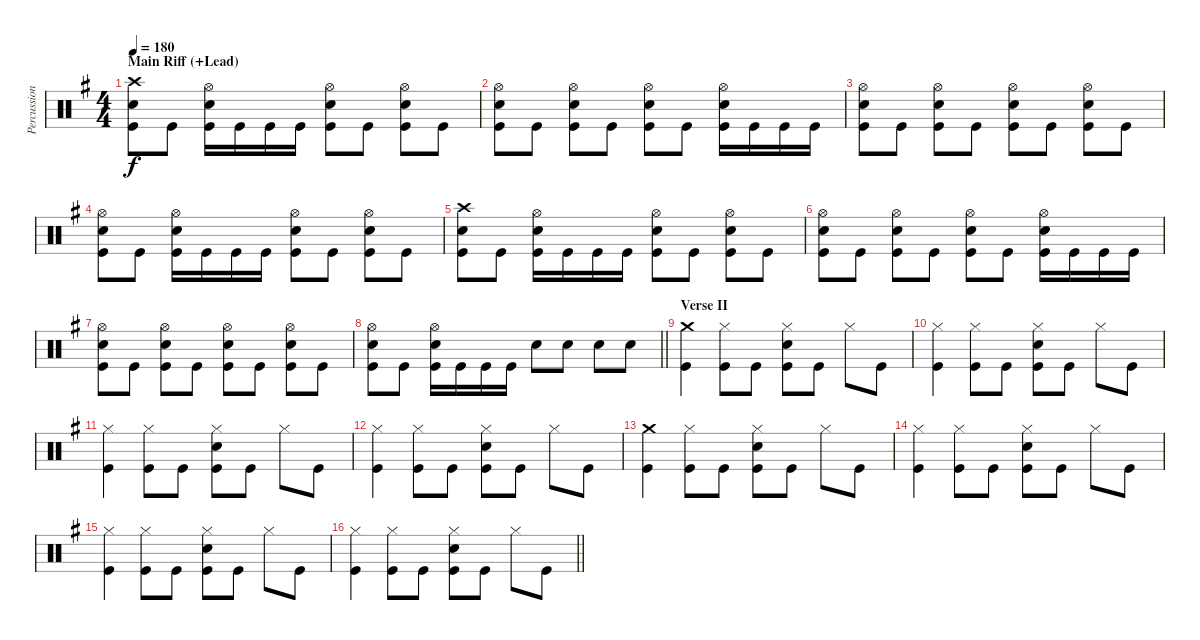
\track ("Percussion" "Percussion") {instrument percussion}
\staff {score}
\articulation defaults
\ts (4 4)
\section ("" "Main Riff (+Lead)")
\tempo 180
\clef neutral
\ks g
("Crash high (hit)" "Electric Snare (hit)" "Kick (hit)").8{dy f} "Kick (hit)".8 ("Hi-Hat (open)" "Electric Snare (hit)" "Kick (hit)").16 "Kick (hit)".16 "Kick (hit)".16 "Kick (hit)".16 ("Hi-Hat (open)" "Electric Snare (hit)" "Kick (hit)").8 "Kick (hit)".8 ("Hi-Hat (open)" "Electric Snare (hit)" "Kick (hit)").8 "Kick (hit)".8 |
("Hi-Hat (open)" "Electric Snare (hit)" "Kick (hit)").8 "Kick (hit)".8 ("Hi-Hat (open)" "Electric Snare (hit)" "Kick (hit)").8 "Kick (hit)".8 ("Hi-Hat (open)" "Electric Snare (hit)" "Kick (hit)").8 "Kick (hit)".8 ("Hi-Hat (open)" "Electric Snare (hit)" "Kick (hit)").16 "Kick (hit)".16 "Kick (hit)".16 "Kick (hit)".16 |
("Hi-Hat (open)" "Electric Snare (hit)" "Kick (hit)").8 "Kick (hit)".8 ("Hi-Hat (open)" "Electric Snare (hit)" "Kick (hit)").8 "Kick (hit)".8 ("Hi-Hat (open)" "Electric Snare (hit)" "Kick (hit)").8 "Kick (hit)".8 ("Hi-Hat (open)" "Electric Snare (hit)" "Kick (hit)").8 "Kick (hit)".8 |
("Hi-Hat (open)" "Electric Snare (hit)" "Kick (hit)").8 "Kick (hit)".8 ("Hi-Hat (open)" "Electric Snare (hit)" "Kick (hit)").16 "Kick (hit)".16 "Kick (hit)".16 "Kick (hit)".16 ("Hi-Hat (open)" "Electric Snare (hit)" "Kick (hit)").8 "Kick (hit)".8 ("Hi-Hat (open)" "Electric Snare (hit)" "Kick (hit)").8 "Kick (hit)".8 |
("Crash high (hit)" "Electric Snare (hit)" "Kick (hit)").8 "Kick (hit)".8 ("Hi-Hat (open)" "Electric Snare (hit)" "Kick (hit)").16 "Kick (hit)".16 "Kick (hit)".16 "Kick (hit)".16 ("Hi-Hat (open)" "Electric Snare (hit)" "Kick (hit)").8 "Kick (hit)".8 ("Hi-Hat (open)" "Electric Snare (hit)" "Kick (hit)").8 "Kick (hit)".8 |
("Hi-Hat (open)" "Electric Snare (hit)" "Kick (hit)").8 "Kick (hit)".8 ("Hi-Hat (open)" "Electric Snare (hit)" "Kick (hit)").8 "Kick (hit)".8 ("Hi-Hat (open)" "Electric Snare (hit)" "Kick (hit)").8 "Kick (hit)".8 ("Hi-Hat (open)" "Electric Snare (hit)" "Kick (hit)").16 "Kick (hit)".16 "Kick (hit)".16 "Kick (hit)".16 |
("Hi-Hat (open)" "Electric Snare (hit)" "Kick (hit)").8 "Kick (hit)".8 ("Hi-Hat (open)" "Electric Snare (hit)" "Kick (hit)").8 "Kick (hit)".8 ("Hi-Hat (open)" "Electric Snare (hit)" "Kick (hit)").8 "Kick (hit)".8 ("Hi-Hat (open)" "Electric Snare (hit)" "Kick (hit)").8 "Kick (hit)".8 |
\barLineRight lightlight
("Hi-Hat (open)" "Electric Snare (hit)" "Kick (hit)").8 "Kick (hit)".8 ("Hi-Hat (open)" "Electric Snare (hit)" "Kick (hit)").16 "Kick (hit)".16 "Kick (hit)".16 "Kick (hit)".16 "Electric Snare (hit)".8 "Electric Snare (hit)".8 "Electric Snare (hit)".8 "Electric Snare (hit)".8 |
\section ("" "Verse II")
("Crash medium (hit)" "Kick (hit)").4 ("Hi-Hat (closed)" "Kick (hit)").8 "Kick (hit)".8 ("Hi-Hat (closed)" "Electric Snare (hit)" "Kick (hit)").8 "Kick (hit)".8 "Hi-Hat (closed)".8 "Kick (hit)".8 |
("Hi-Hat (closed)" "Kick (hit)").4 ("Hi-Hat (closed)" "Kick (hit)").8 "Kick (hit)".8 ("Hi-Hat (closed)" "Electric Snare (hit)" "Kick (hit)").8 "Kick (hit)".8 "Hi-Hat (closed)".8 "Kick (hit)".8 |
("Hi-Hat (closed)" "Kick (hit)").4 ("Hi-Hat (closed)" "Kick (hit)").8 "Kick (hit)".8 ("Hi-Hat (closed)" "Electric Snare (hit)" "Kick (hit)").8 "Kick (hit)".8 "Hi-Hat (closed)".8 "Kick (hit)".8 |
("Hi-Hat (closed)" "Kick (hit)").4 ("Hi-Hat (closed)" "Kick (hit)").8 "Kick (hit)".8 ("Hi-Hat (closed)" "Electric Snare (hit)" "Kick (hit)").8 "Kick (hit)".8 "Hi-Hat (closed)".8 "Kick (hit)".8 |
("Crash medium (hit)" "Kick (hit)").4 ("Hi-Hat (closed)" "Kick (hit)").8 "Kick (hit)".8 ("Hi-Hat (closed)" "Electric Snare (hit)" "Kick (hit)").8 "Kick (hit)".8 "Hi-Hat (closed)".8 "Kick (hit)".8 |
("Hi-Hat (closed)" "Kick (hit)").4 ("Hi-Hat (closed)" "Kick (hit)").8 "Kick (hit)".8 ("Hi-Hat (closed)" "Electric Snare (hit)" "Kick (hit)").8 "Kick (hit)".8 "Hi-Hat (closed)".8 "Kick (hit)".8 |
("Hi-Hat (closed)" "Kick (hit)").4 ("Hi-Hat (closed)" "Kick (hit)").8 "Kick (hit)".8 ("Hi-Hat (closed)" "Electric Snare (hit)" "Kick (hit)").8 "Kick (hit)".8 "Hi-Hat (closed)".8 "Kick (hit)".8 |
\barLineRight lightlight
("Hi-Hat (closed)" "Kick (hit)").4 ("Hi-Hat (closed)" "Kick (hit)").8 "Kick (hit)".8 ("Hi-Hat (closed)" "Electric Snare (hit)" "Kick (hit)").8 "Kick (hit)".8 "Hi-Hat (closed)".8 "Kick (hit)".8
